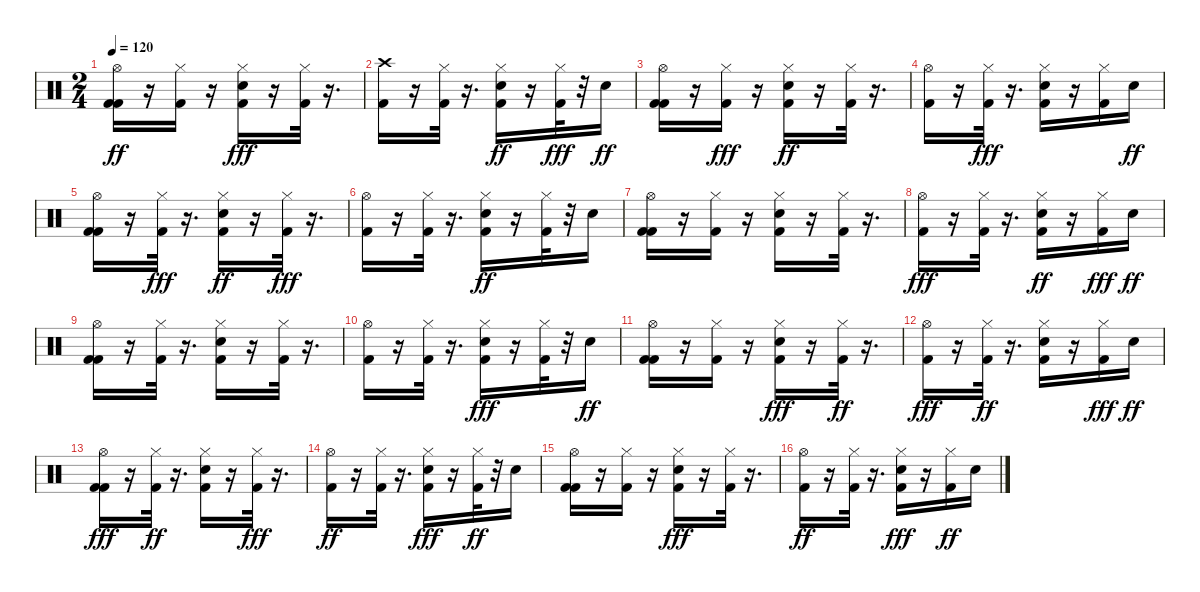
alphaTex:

\track "" {instrument percussion}
\staff {score}
\articulation defaults
\ts (2 4)
\tempo 120
\clef neutral
\ks c
("Hi-Hat (open)" "Kick (hit) 2" "Kick (hit) 2").16{dy ff} r.16 ("Hi-Hat (closed)" "Kick (hit) 2").16 r.16 ("Snare (hit) 2" "Kick (hit) 2" "Hi-Hat (closed)").16{dy fff} r.16 ("Kick (hit) 2" "Hi-Hat (closed)").32 r.16{d} |
("Kick (hit) 2" "Crash high (hit)").16 r.16 ("Kick (hit) 2" "Hi-Hat (closed)").32 r.16{d} ("Hi-Hat (closed)" "Snare (hit) 2" "Kick (hit) 2").16{dy ff} r.16 ("Kick (hit) 2" "Hi-Hat (closed)").32{dy fff} r.32 "Snare (hit) 2".16{dy ff} |
("Hi-Hat (open)" "Kick (hit) 2" "Kick (hit) 2").16 r.16 ("Kick (hit) 2" "Hi-Hat (closed)").16{dy fff} r.16 ("Snare (hit) 2" "Hi-Hat (closed)" "Kick (hit) 2").16{dy ff} r.16 ("Hi-Hat (closed)" "Kick (hit) 2").32 r.16{d} |
("Hi-Hat (open)" "Kick (hit) 2").16 r.16 ("Kick (hit) 2" "Hi-Hat (closed)").32{dy fff} r.16{d} ("Snare (hit) 2" "Kick (hit) 2" "Hi-Hat (closed)").16 r.16 ("Kick (hit) 2" "Hi-Hat (closed)").16 "Snare (hit) 2".16{dy ff} |
("Kick (hit) 2" "Hi-Hat (open)" "Kick (hit) 2").16 r.16 ("Kick (hit) 2" "Hi-Hat (closed)").32{dy fff} r.16{d} ("Hi-Hat (closed)" "Kick (hit) 2" "Snare (hit) 2").16{dy ff} r.16 ("Kick (hit) 2" "Hi-Hat (closed)").32{dy fff} r.16{d} |
("Kick (hit) 2" "Hi-Hat (open)").16 r.16 ("Kick (hit) 2" "Hi-Hat (closed)").32 r.16{d} ("Snare (hit) 2" "Hi-Hat (closed)" "Kick (hit) 2").16{dy ff} r.16 ("Hi-Hat (closed)" "Kick (hit) 2").32 r.32 "Snare (hit) 2".16 |
("Hi-Hat (open)" "Kick (hit) 2" "Kick (hit) 2").16 r.16 ("Hi-Hat (closed)" "Kick (hit) 2").16 r.16 ("Hi-Hat (closed)" "Kick (hit) 2" "Snare (hit) 2").16 r.16 ("Hi-Hat (closed)" "Kick (hit) 2").32 r.16{d} |
("Kick (hit) 2" "Hi-Hat (open)").16{dy fff} r.16 ("Kick (hit) 2" "Hi-Hat (closed)").32 r.16{d} ("Snare (hit) 2" "Hi-Hat (closed)" "Kick (hit) 2").16{dy ff} r.16 ("Kick (hit) 2" "Hi-Hat (closed)").16{dy fff} "Snare (hit) 2".16{dy ff} |
("Kick (hit) 2" "Hi-Hat (open)" "Kick (hit) 2").16 r.16 ("Hi-Hat (closed)" "Kick (hit) 2").32 r.16{d} ("Hi-Hat (closed)" "Snare (hit) 2" "Kick (hit) 2").16 r.16 ("Hi-Hat (closed)" "Kick (hit) 2").32 r.16{d} |
("Hi-Hat (open)" "Kick (hit) 2").16 r.16 ("Hi-Hat (closed)" "Kick (hit) 2").32 r.16{d} ("Snare (hit) 2" "Kick (hit) 2" "Hi-Hat (closed)").16{dy fff} r.16 ("Kick (hit) 2" "Hi-Hat (closed)").32 r.32 "Snare (hit) 2".16{dy ff} |
("Hi-Hat (open)" "Kick (hit) 2" "Kick (hit) 2").16 r.16 ("Hi-Hat (closed)" "Kick (hit) 2").16 r.16 ("Kick (hit) 2" "Snare (hit) 2" "Hi-Hat (closed)").16{dy fff} r.16 ("Hi-Hat (closed)" "Kick (hit) 2").32{dy ff} r.16{d} |
("Kick (hit) 2" "Hi-Hat (open)").16{dy fff} r.16 ("Hi-Hat (closed)" "Kick (hit) 2").32{dy ff} r.16{d} ("Hi-Hat (closed)" "Snare (hit) 2" "Kick (hit) 2").16 r.16 ("Kick (hit) 2" "Hi-Hat (closed)").16{dy fff} "Snare (hit) 2".16{dy ff} |
("Kick (hit) 2" "Kick (hit) 2" "Hi-Hat (open)").16{dy fff} r.16 ("Hi-Hat (closed)" "Kick (hit) 2").32{dy ff} r.16{d} ("Snare (hit) 2" "Hi-Hat (closed)" "Kick (hit) 2").16 r.16 ("Kick (hit) 2" "Hi-Hat (closed)").32{dy fff} r.16{d} |
("Hi-Hat (open)" "Kick (hit) 2").16{dy ff} r.16 ("Hi-Hat (closed)" "Kick (hit) 2").32 r.16{d} ("Snare (hit) 2" "Kick (hit) 2" "Hi-Hat (closed)").16{dy fff} r.16 ("Hi-Hat (closed)" "Kick (hit) 2").32{dy ff} r.32 "Snare (hit) 2".16 |
("Hi-Hat (open)" "Kick (hit) 2" "Kick (hit) 2").16 r.16 ("Hi-Hat (closed)" "Kick (hit) 2").16 r.16 ("Kick (hit) 2" "Snare (hit) 2" "Hi-Hat (closed)").16{dy fff} r.16 ("Kick (hit) 2" "Hi-Hat (closed)").32 r.16{d} |
("Hi-Hat (open)" "Kick (hit) 2").16{dy ff} r.16 ("Hi-Hat (closed)" "Kick (hit) 2").32 r.16{d} ("Kick (hit) 2" "Snare (hit) 2" "Hi-Hat (closed)").16{dy fff} r.16 ("Hi-Hat (closed)" "Kick (hit) 2").16{dy ff} "Snare (hit) 2".16
